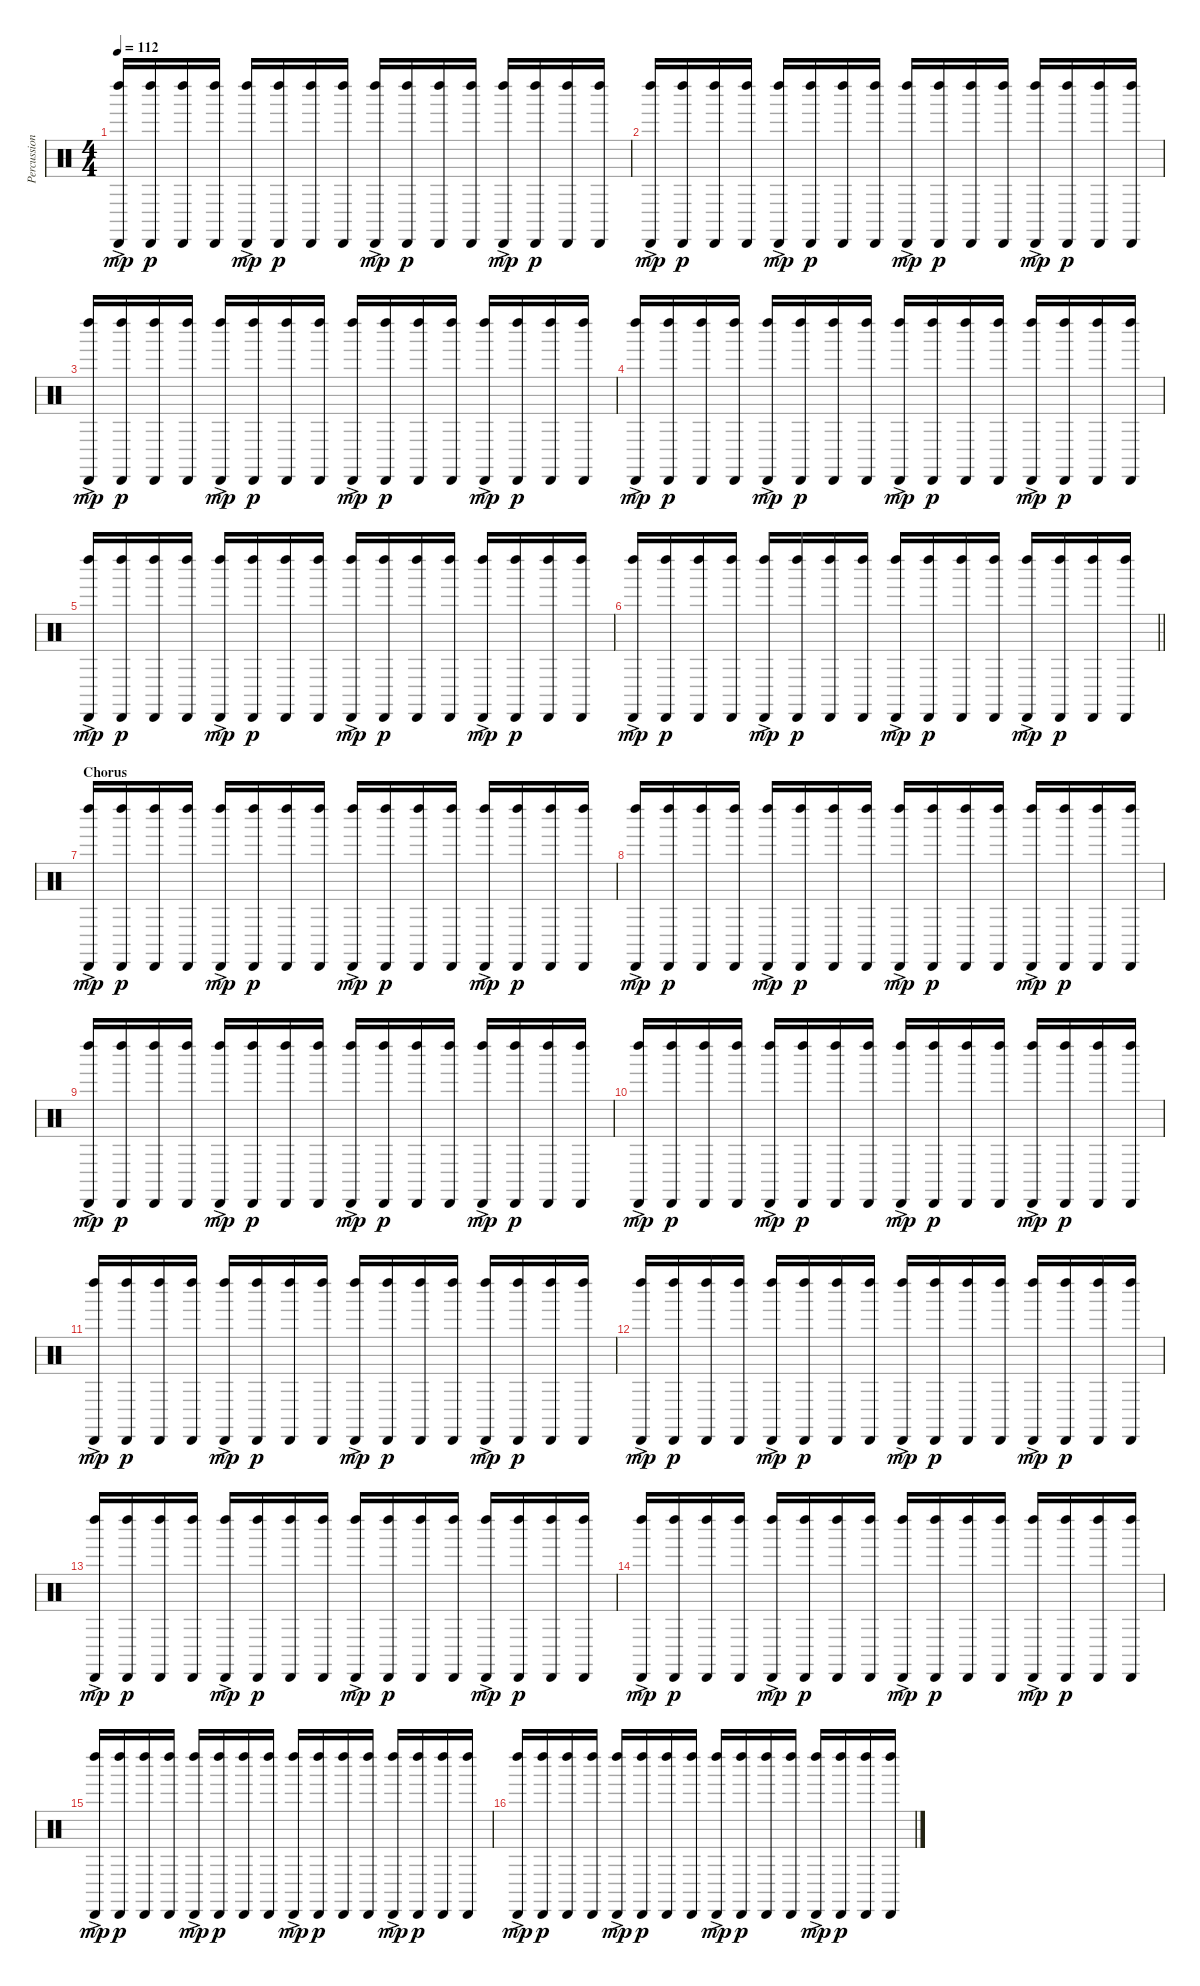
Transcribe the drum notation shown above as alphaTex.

\track ("Percussion" "Percussion") {instrument percussion}
\staff {score}
\articulation defaults
\ts (4 4)
\tempo 112
\clef neutral
\ks c
("Left Maraca (hit)"{ac} "Cabasa (hit)"{ac}).16{dy mp} ("Left Maraca (hit)" "Cabasa (hit)").16{dy p} ("Left Maraca (hit)" "Cabasa (hit)").16 ("Left Maraca (hit)" "Cabasa (hit)").16 ("Left Maraca (hit)"{ac} "Cabasa (hit)"{ac}).16{dy mp} ("Left Maraca (hit)" "Cabasa (hit)").16{dy p} ("Left Maraca (hit)" "Cabasa (hit)").16 ("Left Maraca (hit)" "Cabasa (hit)").16 ("Left Maraca (hit)"{ac} "Cabasa (hit)"{ac}).16{dy mp} ("Left Maraca (hit)" "Cabasa (hit)").16{dy p} ("Left Maraca (hit)" "Cabasa (hit)").16 ("Left Maraca (hit)" "Cabasa (hit)").16 ("Left Maraca (hit)"{ac} "Cabasa (hit)"{ac}).16{dy mp} ("Left Maraca (hit)" "Cabasa (hit)").16{dy p} ("Left Maraca (hit)" "Cabasa (hit)").16 ("Left Maraca (hit)" "Cabasa (hit)").16 |
("Left Maraca (hit)"{ac} "Cabasa (hit)"{ac}).16{dy mp} ("Left Maraca (hit)" "Cabasa (hit)").16{dy p} ("Left Maraca (hit)" "Cabasa (hit)").16 ("Left Maraca (hit)" "Cabasa (hit)").16 ("Left Maraca (hit)"{ac} "Cabasa (hit)"{ac}).16{dy mp} ("Left Maraca (hit)" "Cabasa (hit)").16{dy p} ("Left Maraca (hit)" "Cabasa (hit)").16 ("Left Maraca (hit)" "Cabasa (hit)").16 ("Left Maraca (hit)"{ac} "Cabasa (hit)"{ac}).16{dy mp} ("Left Maraca (hit)" "Cabasa (hit)").16{dy p} ("Left Maraca (hit)" "Cabasa (hit)").16 ("Left Maraca (hit)" "Cabasa (hit)").16 ("Left Maraca (hit)"{ac} "Cabasa (hit)"{ac}).16{dy mp} ("Left Maraca (hit)" "Cabasa (hit)").16{dy p} ("Left Maraca (hit)" "Cabasa (hit)").16 ("Left Maraca (hit)" "Cabasa (hit)").16 |
("Left Maraca (hit)"{ac} "Cabasa (hit)"{ac}).16{dy mp} ("Left Maraca (hit)" "Cabasa (hit)").16{dy p} ("Left Maraca (hit)" "Cabasa (hit)").16 ("Left Maraca (hit)" "Cabasa (hit)").16 ("Left Maraca (hit)"{ac} "Cabasa (hit)"{ac}).16{dy mp} ("Left Maraca (hit)" "Cabasa (hit)").16{dy p} ("Left Maraca (hit)" "Cabasa (hit)").16 ("Left Maraca (hit)" "Cabasa (hit)").16 ("Left Maraca (hit)"{ac} "Cabasa (hit)"{ac}).16{dy mp} ("Left Maraca (hit)" "Cabasa (hit)").16{dy p} ("Left Maraca (hit)" "Cabasa (hit)").16 ("Left Maraca (hit)" "Cabasa (hit)").16 ("Left Maraca (hit)"{ac} "Cabasa (hit)"{ac}).16{dy mp} ("Left Maraca (hit)" "Cabasa (hit)").16{dy p} ("Left Maraca (hit)" "Cabasa (hit)").16 ("Left Maraca (hit)" "Cabasa (hit)").16 |
("Left Maraca (hit)"{ac} "Cabasa (hit)"{ac}).16{dy mp} ("Left Maraca (hit)" "Cabasa (hit)").16{dy p} ("Left Maraca (hit)" "Cabasa (hit)").16 ("Left Maraca (hit)" "Cabasa (hit)").16 ("Left Maraca (hit)"{ac} "Cabasa (hit)"{ac}).16{dy mp} ("Left Maraca (hit)" "Cabasa (hit)").16{dy p} ("Left Maraca (hit)" "Cabasa (hit)").16 ("Left Maraca (hit)" "Cabasa (hit)").16 ("Left Maraca (hit)"{ac} "Cabasa (hit)"{ac}).16{dy mp} ("Left Maraca (hit)" "Cabasa (hit)").16{dy p} ("Left Maraca (hit)" "Cabasa (hit)").16 ("Left Maraca (hit)" "Cabasa (hit)").16 ("Left Maraca (hit)"{ac} "Cabasa (hit)"{ac}).16{dy mp} ("Left Maraca (hit)" "Cabasa (hit)").16{dy p} ("Left Maraca (hit)" "Cabasa (hit)").16 ("Left Maraca (hit)" "Cabasa (hit)").16 |
("Left Maraca (hit)"{ac} "Cabasa (hit)"{ac}).16{dy mp} ("Left Maraca (hit)" "Cabasa (hit)").16{dy p} ("Left Maraca (hit)" "Cabasa (hit)").16 ("Left Maraca (hit)" "Cabasa (hit)").16 ("Left Maraca (hit)"{ac} "Cabasa (hit)"{ac}).16{dy mp} ("Left Maraca (hit)" "Cabasa (hit)").16{dy p} ("Left Maraca (hit)" "Cabasa (hit)").16 ("Left Maraca (hit)" "Cabasa (hit)").16 ("Left Maraca (hit)"{ac} "Cabasa (hit)"{ac}).16{dy mp} ("Left Maraca (hit)" "Cabasa (hit)").16{dy p} ("Left Maraca (hit)" "Cabasa (hit)").16 ("Left Maraca (hit)" "Cabasa (hit)").16 ("Left Maraca (hit)"{ac} "Cabasa (hit)"{ac}).16{dy mp} ("Left Maraca (hit)" "Cabasa (hit)").16{dy p} ("Left Maraca (hit)" "Cabasa (hit)").16 ("Left Maraca (hit)" "Cabasa (hit)").16 |
\barLineRight lightlight
("Left Maraca (hit)"{ac} "Cabasa (hit)"{ac}).16{dy mp} ("Left Maraca (hit)" "Cabasa (hit)").16{dy p} ("Left Maraca (hit)" "Cabasa (hit)").16 ("Left Maraca (hit)" "Cabasa (hit)").16 ("Left Maraca (hit)"{ac} "Cabasa (hit)"{ac}).16{dy mp} ("Left Maraca (hit)" "Cabasa (hit)").16{dy p} ("Left Maraca (hit)" "Cabasa (hit)").16 ("Left Maraca (hit)" "Cabasa (hit)").16 ("Left Maraca (hit)"{ac} "Cabasa (hit)"{ac}).16{dy mp} ("Left Maraca (hit)" "Cabasa (hit)").16{dy p} ("Left Maraca (hit)" "Cabasa (hit)").16 ("Left Maraca (hit)" "Cabasa (hit)").16 ("Left Maraca (hit)"{ac} "Cabasa (hit)"{ac}).16{dy mp} ("Left Maraca (hit)" "Cabasa (hit)").16{dy p} ("Left Maraca (hit)" "Cabasa (hit)").16 ("Left Maraca (hit)" "Cabasa (hit)").16 |
\section ("" "Chorus")
("Left Maraca (hit)"{ac} "Cabasa (hit)"{ac}).16{dy mp} ("Left Maraca (hit)" "Cabasa (hit)").16{dy p} ("Left Maraca (hit)" "Cabasa (hit)").16 ("Left Maraca (hit)" "Cabasa (hit)").16 ("Left Maraca (hit)"{ac} "Cabasa (hit)"{ac}).16{dy mp} ("Left Maraca (hit)" "Cabasa (hit)").16{dy p} ("Left Maraca (hit)" "Cabasa (hit)").16 ("Left Maraca (hit)" "Cabasa (hit)").16 ("Left Maraca (hit)"{ac} "Cabasa (hit)"{ac}).16{dy mp} ("Left Maraca (hit)" "Cabasa (hit)").16{dy p} ("Left Maraca (hit)" "Cabasa (hit)").16 ("Left Maraca (hit)" "Cabasa (hit)").16 ("Left Maraca (hit)"{ac} "Cabasa (hit)"{ac}).16{dy mp} ("Left Maraca (hit)" "Cabasa (hit)").16{dy p} ("Left Maraca (hit)" "Cabasa (hit)").16 ("Left Maraca (hit)" "Cabasa (hit)").16 |
("Left Maraca (hit)"{ac} "Cabasa (hit)"{ac}).16{dy mp} ("Left Maraca (hit)" "Cabasa (hit)").16{dy p} ("Left Maraca (hit)" "Cabasa (hit)").16 ("Left Maraca (hit)" "Cabasa (hit)").16 ("Left Maraca (hit)"{ac} "Cabasa (hit)"{ac}).16{dy mp} ("Left Maraca (hit)" "Cabasa (hit)").16{dy p} ("Left Maraca (hit)" "Cabasa (hit)").16 ("Left Maraca (hit)" "Cabasa (hit)").16 ("Left Maraca (hit)"{ac} "Cabasa (hit)"{ac}).16{dy mp} ("Left Maraca (hit)" "Cabasa (hit)").16{dy p} ("Left Maraca (hit)" "Cabasa (hit)").16 ("Left Maraca (hit)" "Cabasa (hit)").16 ("Left Maraca (hit)"{ac} "Cabasa (hit)"{ac}).16{dy mp} ("Left Maraca (hit)" "Cabasa (hit)").16{dy p} ("Left Maraca (hit)" "Cabasa (hit)").16 ("Left Maraca (hit)" "Cabasa (hit)").16 |
("Left Maraca (hit)"{ac} "Cabasa (hit)"{ac}).16{dy mp} ("Left Maraca (hit)" "Cabasa (hit)").16{dy p} ("Left Maraca (hit)" "Cabasa (hit)").16 ("Left Maraca (hit)" "Cabasa (hit)").16 ("Left Maraca (hit)"{ac} "Cabasa (hit)"{ac}).16{dy mp} ("Left Maraca (hit)" "Cabasa (hit)").16{dy p} ("Left Maraca (hit)" "Cabasa (hit)").16 ("Left Maraca (hit)" "Cabasa (hit)").16 ("Left Maraca (hit)"{ac} "Cabasa (hit)"{ac}).16{dy mp} ("Left Maraca (hit)" "Cabasa (hit)").16{dy p} ("Left Maraca (hit)" "Cabasa (hit)").16 ("Left Maraca (hit)" "Cabasa (hit)").16 ("Left Maraca (hit)"{ac} "Cabasa (hit)"{ac}).16{dy mp} ("Left Maraca (hit)" "Cabasa (hit)").16{dy p} ("Left Maraca (hit)" "Cabasa (hit)").16 ("Left Maraca (hit)" "Cabasa (hit)").16 |
("Left Maraca (hit)"{ac} "Cabasa (hit)"{ac}).16{dy mp} ("Left Maraca (hit)" "Cabasa (hit)").16{dy p} ("Left Maraca (hit)" "Cabasa (hit)").16 ("Left Maraca (hit)" "Cabasa (hit)").16 ("Left Maraca (hit)"{ac} "Cabasa (hit)"{ac}).16{dy mp} ("Left Maraca (hit)" "Cabasa (hit)").16{dy p} ("Left Maraca (hit)" "Cabasa (hit)").16 ("Left Maraca (hit)" "Cabasa (hit)").16 ("Left Maraca (hit)"{ac} "Cabasa (hit)"{ac}).16{dy mp} ("Left Maraca (hit)" "Cabasa (hit)").16{dy p} ("Left Maraca (hit)" "Cabasa (hit)").16 ("Left Maraca (hit)" "Cabasa (hit)").16 ("Left Maraca (hit)"{ac} "Cabasa (hit)"{ac}).16{dy mp} ("Left Maraca (hit)" "Cabasa (hit)").16{dy p} ("Left Maraca (hit)" "Cabasa (hit)").16 ("Left Maraca (hit)" "Cabasa (hit)").16 |
("Left Maraca (hit)"{ac} "Cabasa (hit)"{ac}).16{dy mp} ("Left Maraca (hit)" "Cabasa (hit)").16{dy p} ("Left Maraca (hit)" "Cabasa (hit)").16 ("Left Maraca (hit)" "Cabasa (hit)").16 ("Left Maraca (hit)"{ac} "Cabasa (hit)"{ac}).16{dy mp} ("Left Maraca (hit)" "Cabasa (hit)").16{dy p} ("Left Maraca (hit)" "Cabasa (hit)").16 ("Left Maraca (hit)" "Cabasa (hit)").16 ("Left Maraca (hit)"{ac} "Cabasa (hit)"{ac}).16{dy mp} ("Left Maraca (hit)" "Cabasa (hit)").16{dy p} ("Left Maraca (hit)" "Cabasa (hit)").16 ("Left Maraca (hit)" "Cabasa (hit)").16 ("Left Maraca (hit)"{ac} "Cabasa (hit)"{ac}).16{dy mp} ("Left Maraca (hit)" "Cabasa (hit)").16{dy p} ("Left Maraca (hit)" "Cabasa (hit)").16 ("Left Maraca (hit)" "Cabasa (hit)").16 |
("Left Maraca (hit)"{ac} "Cabasa (hit)"{ac}).16{dy mp} ("Left Maraca (hit)" "Cabasa (hit)").16{dy p} ("Left Maraca (hit)" "Cabasa (hit)").16 ("Left Maraca (hit)" "Cabasa (hit)").16 ("Left Maraca (hit)"{ac} "Cabasa (hit)"{ac}).16{dy mp} ("Left Maraca (hit)" "Cabasa (hit)").16{dy p} ("Left Maraca (hit)" "Cabasa (hit)").16 ("Left Maraca (hit)" "Cabasa (hit)").16 ("Left Maraca (hit)"{ac} "Cabasa (hit)"{ac}).16{dy mp} ("Left Maraca (hit)" "Cabasa (hit)").16{dy p} ("Left Maraca (hit)" "Cabasa (hit)").16 ("Left Maraca (hit)" "Cabasa (hit)").16 ("Left Maraca (hit)"{ac} "Cabasa (hit)"{ac}).16{dy mp} ("Left Maraca (hit)" "Cabasa (hit)").16{dy p} ("Left Maraca (hit)" "Cabasa (hit)").16 ("Left Maraca (hit)" "Cabasa (hit)").16 |
("Left Maraca (hit)"{ac} "Cabasa (hit)"{ac}).16{dy mp} ("Left Maraca (hit)" "Cabasa (hit)").16{dy p} ("Left Maraca (hit)" "Cabasa (hit)").16 ("Left Maraca (hit)" "Cabasa (hit)").16 ("Left Maraca (hit)"{ac} "Cabasa (hit)"{ac}).16{dy mp} ("Left Maraca (hit)" "Cabasa (hit)").16{dy p} ("Left Maraca (hit)" "Cabasa (hit)").16 ("Left Maraca (hit)" "Cabasa (hit)").16 ("Left Maraca (hit)"{ac} "Cabasa (hit)"{ac}).16{dy mp} ("Left Maraca (hit)" "Cabasa (hit)").16{dy p} ("Left Maraca (hit)" "Cabasa (hit)").16 ("Left Maraca (hit)" "Cabasa (hit)").16 ("Left Maraca (hit)"{ac} "Cabasa (hit)"{ac}).16{dy mp} ("Left Maraca (hit)" "Cabasa (hit)").16{dy p} ("Left Maraca (hit)" "Cabasa (hit)").16 ("Left Maraca (hit)" "Cabasa (hit)").16 |
("Left Maraca (hit)"{ac} "Cabasa (hit)"{ac}).16{dy mp} ("Left Maraca (hit)" "Cabasa (hit)").16{dy p} ("Left Maraca (hit)" "Cabasa (hit)").16 ("Left Maraca (hit)" "Cabasa (hit)").16 ("Left Maraca (hit)"{ac} "Cabasa (hit)"{ac}).16{dy mp} ("Left Maraca (hit)" "Cabasa (hit)").16{dy p} ("Left Maraca (hit)" "Cabasa (hit)").16 ("Left Maraca (hit)" "Cabasa (hit)").16 ("Left Maraca (hit)"{ac} "Cabasa (hit)"{ac}).16{dy mp} ("Left Maraca (hit)" "Cabasa (hit)").16{dy p} ("Left Maraca (hit)" "Cabasa (hit)").16 ("Left Maraca (hit)" "Cabasa (hit)").16 ("Left Maraca (hit)"{ac} "Cabasa (hit)"{ac}).16{dy mp} ("Left Maraca (hit)" "Cabasa (hit)").16{dy p} ("Left Maraca (hit)" "Cabasa (hit)").16 ("Left Maraca (hit)" "Cabasa (hit)").16 |
("Left Maraca (hit)"{ac} "Cabasa (hit)"{ac}).16{dy mp} ("Left Maraca (hit)" "Cabasa (hit)").16{dy p} ("Left Maraca (hit)" "Cabasa (hit)").16 ("Left Maraca (hit)" "Cabasa (hit)").16 ("Left Maraca (hit)"{ac} "Cabasa (hit)"{ac}).16{dy mp} ("Left Maraca (hit)" "Cabasa (hit)").16{dy p} ("Left Maraca (hit)" "Cabasa (hit)").16 ("Left Maraca (hit)" "Cabasa (hit)").16 ("Left Maraca (hit)"{ac} "Cabasa (hit)"{ac}).16{dy mp} ("Left Maraca (hit)" "Cabasa (hit)").16{dy p} ("Left Maraca (hit)" "Cabasa (hit)").16 ("Left Maraca (hit)" "Cabasa (hit)").16 ("Left Maraca (hit)"{ac} "Cabasa (hit)"{ac}).16{dy mp} ("Left Maraca (hit)" "Cabasa (hit)").16{dy p} ("Left Maraca (hit)" "Cabasa (hit)").16 ("Left Maraca (hit)" "Cabasa (hit)").16 |
("Left Maraca (hit)"{ac} "Cabasa (hit)"{ac}).16{dy mp} ("Left Maraca (hit)" "Cabasa (hit)").16{dy p} ("Left Maraca (hit)" "Cabasa (hit)").16 ("Left Maraca (hit)" "Cabasa (hit)").16 ("Left Maraca (hit)"{ac} "Cabasa (hit)"{ac}).16{dy mp} ("Left Maraca (hit)" "Cabasa (hit)").16{dy p} ("Left Maraca (hit)" "Cabasa (hit)").16 ("Left Maraca (hit)" "Cabasa (hit)").16 ("Left Maraca (hit)"{ac} "Cabasa (hit)"{ac}).16{dy mp} ("Left Maraca (hit)" "Cabasa (hit)").16{dy p} ("Left Maraca (hit)" "Cabasa (hit)").16 ("Left Maraca (hit)" "Cabasa (hit)").16 ("Left Maraca (hit)"{ac} "Cabasa (hit)"{ac}).16{dy mp} ("Left Maraca (hit)" "Cabasa (hit)").16{dy p} ("Left Maraca (hit)" "Cabasa (hit)").16 ("Left Maraca (hit)" "Cabasa (hit)").16
